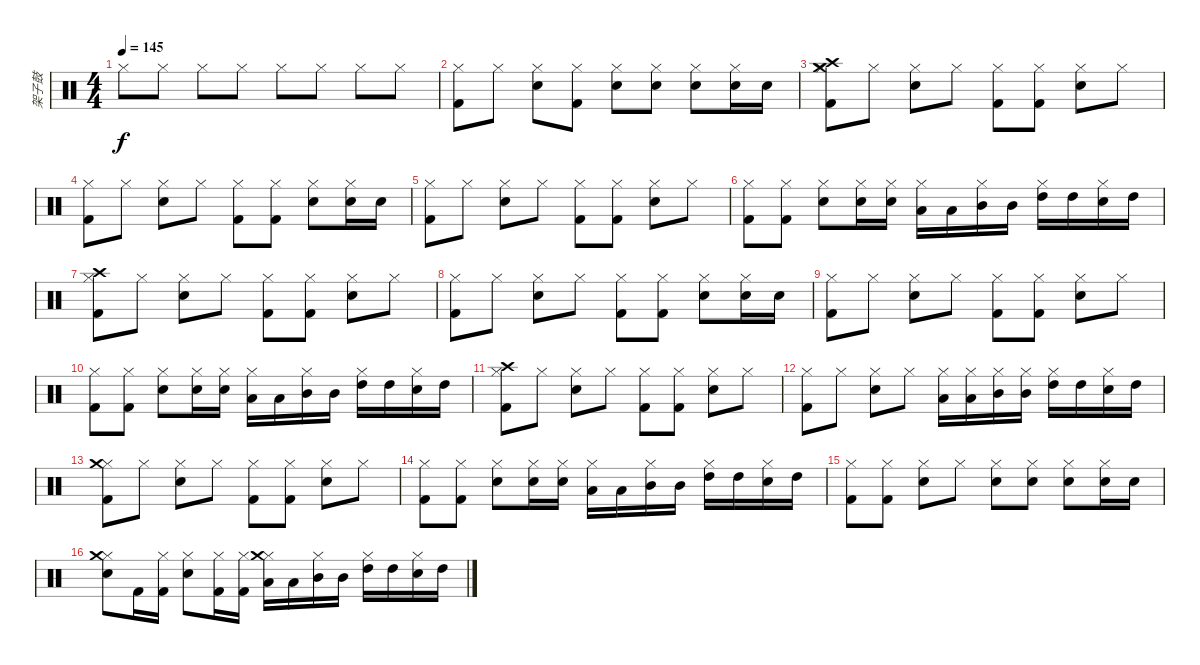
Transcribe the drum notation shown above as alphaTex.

\track ("架子鼓" "架子鼓") {instrument percussion}
\staff {score}
\articulation defaults
\ts (4 4)
\tempo 145
\clef neutral
\ks c "Hi-Hat (closed)".8{dy f} "Hi-Hat (closed)".8 "Hi-Hat (closed)".8 "Hi-Hat (closed)".8 "Hi-Hat (closed)".8 "Hi-Hat (closed)".8 "Hi-Hat (closed)".8 "Hi-Hat (closed)".8
|
("Hi-Hat (closed)" "Kick (hit) 2").8 "Hi-Hat (closed)".8 ("Hi-Hat (closed)" "Snare (hit) 2").8 ("Hi-Hat (closed)" "Kick (hit) 2").8 ("Hi-Hat (closed)" "Snare (hit) 2").8 ("Hi-Hat (closed)" "Snare (hit) 2").8 ("Hi-Hat (closed)" "Snare (hit) 2").8 ("Hi-Hat (closed)" "Snare (hit) 2").16 "Snare (hit) 2".16 |
("Hi-Hat (closed)" "Crash medium (hit)" "Kick (hit) 2" "Crash high (hit)").8 "Hi-Hat (closed)".8 ("Hi-Hat (closed)" "Snare (hit) 2").8 "Hi-Hat (closed)".8 ("Hi-Hat (closed)" "Kick (hit) 2").8 ("Hi-Hat (closed)" "Kick (hit) 2").8 ("Hi-Hat (closed)" "Snare (hit) 2").8 "Hi-Hat (closed)".8 |
("Hi-Hat (closed)" "Kick (hit) 2").8 "Hi-Hat (closed)".8 ("Hi-Hat (closed)" "Snare (hit) 2").8 "Hi-Hat (closed)".8 ("Hi-Hat (closed)" "Kick (hit) 2").8 ("Hi-Hat (closed)" "Kick (hit) 2").8 ("Hi-Hat (closed)" "Snare (hit) 2").8 ("Hi-Hat (closed)" "Snare (hit) 2").16 "Snare (hit) 2".16 |
("Hi-Hat (closed)" "Kick (hit) 2").8 "Hi-Hat (closed)".8 ("Hi-Hat (closed)" "Snare (hit) 2").8 "Hi-Hat (closed)".8 ("Hi-Hat (closed)" "Kick (hit) 2").8 ("Hi-Hat (closed)" "Kick (hit) 2").8 ("Hi-Hat (closed)" "Snare (hit) 2").8 "Hi-Hat (closed)".8 |
("Hi-Hat (closed)" "Kick (hit) 2").8 ("Hi-Hat (closed)" "Kick (hit) 2").8 ("Hi-Hat (closed)" "Snare (hit) 2").8 ("Hi-Hat (closed)" "Snare (hit) 2").16 ("Hi-Hat (closed)" "Snare (hit) 2").16 ("Hi-Hat (closed)" "Low Tom (hit)").16 "Low Tom (hit)".16 ("Hi-Hat (closed)" "Mid Tom (hit)").16 "Mid Tom (hit)".16 ("Hi-Hat (closed)" "High Tom (hit)").16 "High Tom (hit)".16 ("Hi-Hat (closed)" "Snare (hit) 2").16 "High Tom (hit)".16 |
("Hi-Hat (closed)" "Kick (hit) 2" "Crash high (hit)").8 "Hi-Hat (closed)".8 ("Hi-Hat (closed)" "Snare (hit) 2").8 "Hi-Hat (closed)".8 ("Hi-Hat (closed)" "Kick (hit) 2").8 ("Hi-Hat (closed)" "Kick (hit) 2").8 ("Hi-Hat (closed)" "Snare (hit) 2").8 "Hi-Hat (closed)".8 |
("Hi-Hat (closed)" "Kick (hit) 2").8 "Hi-Hat (closed)".8 ("Hi-Hat (closed)" "Snare (hit) 2").8 "Hi-Hat (closed)".8 ("Hi-Hat (closed)" "Kick (hit) 2").8 ("Hi-Hat (closed)" "Kick (hit) 2").8 ("Hi-Hat (closed)" "Snare (hit) 2").8 ("Hi-Hat (closed)" "Snare (hit) 2").16 "Snare (hit) 2".16 |
("Hi-Hat (closed)" "Kick (hit) 2").8 "Hi-Hat (closed)".8 ("Hi-Hat (closed)" "Snare (hit) 2").8 "Hi-Hat (closed)".8 ("Hi-Hat (closed)" "Kick (hit) 2").8 ("Hi-Hat (closed)" "Kick (hit) 2").8 ("Hi-Hat (closed)" "Snare (hit) 2").8 "Hi-Hat (closed)".8 |
("Hi-Hat (closed)" "Kick (hit) 2").8 ("Hi-Hat (closed)" "Kick (hit) 2").8 ("Hi-Hat (closed)" "Snare (hit) 2").8 ("Hi-Hat (closed)" "Snare (hit) 2").16 ("Hi-Hat (closed)" "Snare (hit) 2").16 ("Hi-Hat (closed)" "Low Tom (hit)").16 "Low Tom (hit)".16 ("Hi-Hat (closed)" "Mid Tom (hit)").16 "Mid Tom (hit)".16 ("Hi-Hat (closed)" "High Tom (hit)").16 "High Tom (hit)".16 ("Hi-Hat (closed)" "Snare (hit) 2").16 "High Tom (hit)".16 |
("Hi-Hat (closed)" "Kick (hit) 2" "Crash high (hit)").8 "Hi-Hat (closed)".8 ("Hi-Hat (closed)" "Snare (hit) 2").8 "Hi-Hat (closed)".8 ("Hi-Hat (closed)" "Kick (hit) 2").8 ("Hi-Hat (closed)" "Kick (hit) 2").8 ("Hi-Hat (closed)" "Snare (hit) 2").8 "Hi-Hat (closed)".8 |
("Hi-Hat (closed)" "Kick (hit) 2").8 "Hi-Hat (closed)".8 ("Hi-Hat (closed)" "Snare (hit) 2").8 "Hi-Hat (closed)".8 ("Hi-Hat (closed)" "Low Tom (hit)").16 ("Hi-Hat (closed)" "Low Tom (hit)").16 ("Hi-Hat (closed)" "Mid Tom (hit)").16 ("Hi-Hat (closed)" "Mid Tom (hit)").16 ("Hi-Hat (closed)" "High Tom (hit)").16 "High Tom (hit)".16 ("Hi-Hat (closed)" "Snare (hit) 2").16 "High Tom (hit)".16 |
("Hi-Hat (closed)" "Kick (hit) 2" "Crash medium (hit)").8 "Hi-Hat (closed)".8 ("Hi-Hat (closed)" "Snare (hit) 2").8 "Hi-Hat (closed)".8 ("Hi-Hat (closed)" "Kick (hit) 2").8 ("Hi-Hat (closed)" "Kick (hit) 2").8 ("Hi-Hat (closed)" "Snare (hit) 2").8 "Hi-Hat (closed)".8 |
("Hi-Hat (closed)" "Kick (hit) 2").8 ("Hi-Hat (closed)" "Kick (hit) 2").8 ("Hi-Hat (closed)" "Snare (hit) 2").8 ("Hi-Hat (closed)" "Snare (hit) 2").16 ("Hi-Hat (closed)" "Snare (hit) 2").16 ("Hi-Hat (closed)" "Low Tom (hit)").16 "Low Tom (hit)".16 ("Hi-Hat (closed)" "Mid Tom (hit)").16 "Mid Tom (hit)".16 ("Hi-Hat (closed)" "High Tom (hit)").16 "High Tom (hit)".16 ("Hi-Hat (closed)" "Snare (hit) 2").16 "High Tom (hit)".16 |
("Hi-Hat (closed)" "Kick (hit) 2").8 ("Hi-Hat (closed)" "Kick (hit) 2").8 ("Hi-Hat (closed)" "Snare (hit) 2").8 "Hi-Hat (closed)".8 ("Hi-Hat (closed)" "Snare (hit) 2").8 ("Hi-Hat (closed)" "Snare (hit) 2").8 ("Hi-Hat (closed)" "Snare (hit) 2").8 ("Hi-Hat (closed)" "Snare (hit) 2").16 "Snare (hit) 2".16 |
("Hi-Hat (closed)" "Snare (hit) 2" "Crash medium (hit)").8 "Kick (hit) 2".16 ("Hi-Hat (closed)" "Kick (hit) 2").16 ("Hi-Hat (closed)" "Snare (hit) 2").8 ("Hi-Hat (closed)" "Kick (hit) 2").16 ("Hi-Hat (closed)" "Kick (hit) 2").16 ("Hi-Hat (closed)" "Low Tom (hit)" "Crash medium (hit)").16 "Low Tom (hit)".16 ("Hi-Hat (closed)" "Mid Tom (hit)").16 "Mid Tom (hit)".16 ("Hi-Hat (closed)" "High Tom (hit)").16 "High Tom (hit)".16 ("Hi-Hat (closed)" "Snare (hit) 2").16 "High Tom (hit)".16
